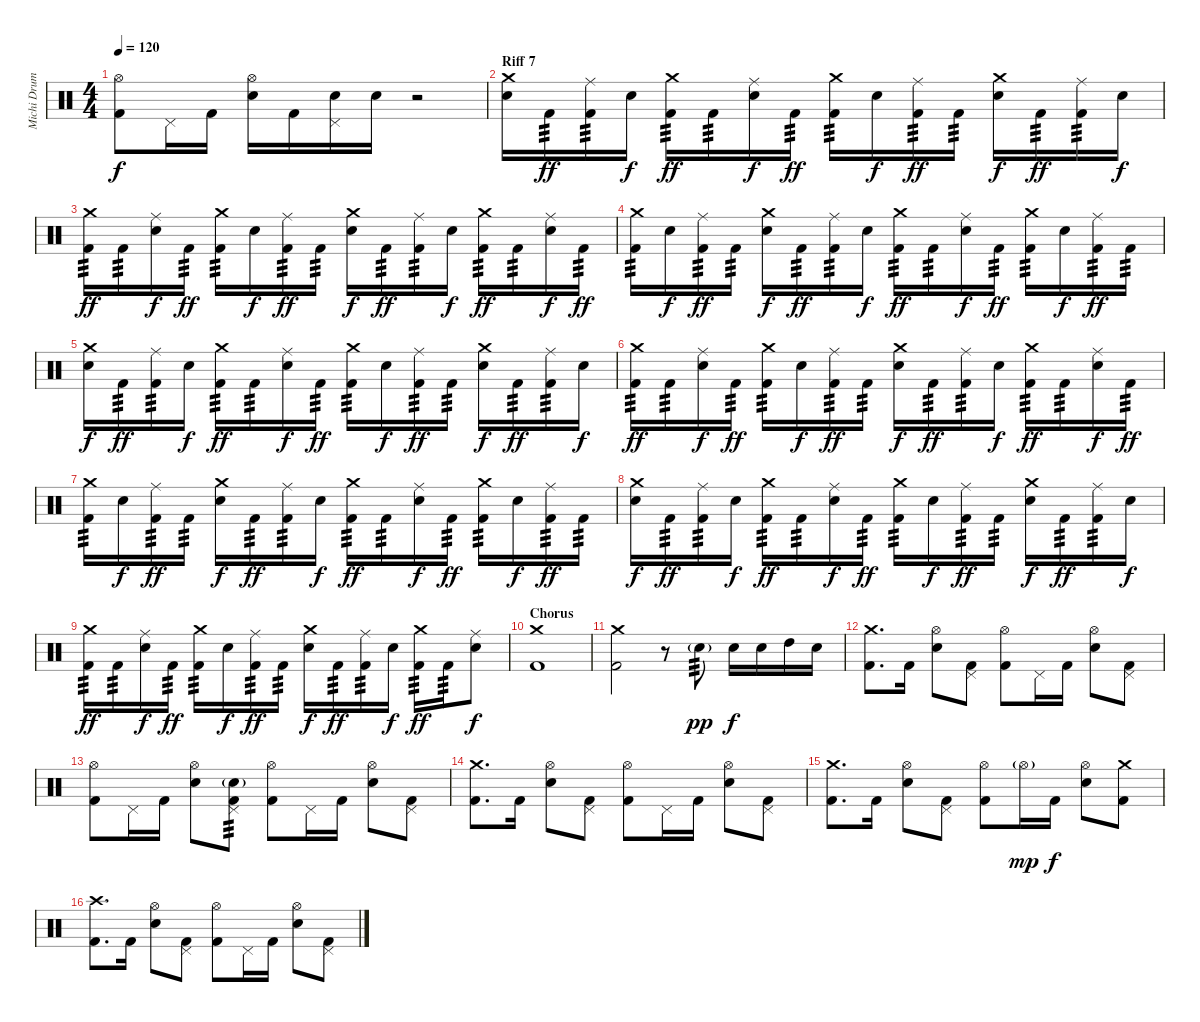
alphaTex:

\track ("Michi Drums" "Michi Drum") {instrument percussion}
\staff {score}
\articulation defaults
\ts (4 4)
\tempo 120
\clef neutral
\ks c
("Hi-Hat (open)" "Kick (hit) 2").8{dy f} "Pedal Hi-Hat (hit)".16 "Kick (hit) 2".16 ("Hi-Hat (open)" "Electric Snare (hit)").16 "Kick (hit) 2".16 ("Pedal Hi-Hat (hit)" "Electric Snare (hit)").16 "Electric Snare (hit)".16 r.2 |
\section ("" "Riff 7")
("Crash medium (hit)" "Electric Snare (hit)").16 "Kick (hit) 2".16{tp 3 dy ff} ("Ride (middle)" "Kick (hit) 2").16{tp 3} "Electric Snare (hit)".16{dy f} ("Crash medium (hit)" "Kick (hit) 2").16{tp 3 dy ff} "Kick (hit) 2".16{tp 3} ("Ride (middle)" "Electric Snare (hit)").16{dy f} "Kick (hit) 2".16{tp 3 dy ff} ("Crash medium (hit)" "Kick (hit) 2").16{tp 3} "Electric Snare (hit)".16{dy f} ("Ride (middle)" "Kick (hit) 2").16{tp 3 dy ff} "Kick (hit) 2".16{tp 3} ("Crash medium (hit)" "Electric Snare (hit)").16{dy f} "Kick (hit) 2".16{tp 3 dy ff} ("Ride (middle)" "Kick (hit) 2").16{tp 3} "Electric Snare (hit)".16{dy f} |
("Crash medium (hit)" "Kick (hit) 2").16{tp 3 dy ff} "Kick (hit) 2".16{tp 3} ("Ride (middle)" "Electric Snare (hit)").16{dy f} "Kick (hit) 2".16{tp 3 dy ff} ("Crash medium (hit)" "Kick (hit) 2").16{tp 3} "Electric Snare (hit)".16{dy f} ("Ride (middle)" "Kick (hit) 2").16{tp 3 dy ff} "Kick (hit) 2".16{tp 3} ("Crash medium (hit)" "Electric Snare (hit)").16{dy f} "Kick (hit) 2".16{tp 3 dy ff} ("Ride (middle)" "Kick (hit) 2").16{tp 3} "Electric Snare (hit)".16{dy f} ("Crash medium (hit)" "Kick (hit) 2").16{tp 3 dy ff} "Kick (hit) 2".16{tp 3} ("Ride (middle)" "Electric Snare (hit)").16{dy f} "Kick (hit) 2".16{tp 3 dy ff} |
("Crash medium (hit)" "Kick (hit) 2").16{tp 3} "Electric Snare (hit)".16{dy f} ("Ride (middle)" "Kick (hit) 2").16{tp 3 dy ff} "Kick (hit) 2".16{tp 3} ("Crash medium (hit)" "Electric Snare (hit)").16{dy f} "Kick (hit) 2".16{tp 3 dy ff} ("Ride (middle)" "Kick (hit) 2").16{tp 3} "Electric Snare (hit)".16{dy f} ("Crash medium (hit)" "Kick (hit) 2").16{tp 3 dy ff} "Kick (hit) 2".16{tp 3} ("Ride (middle)" "Electric Snare (hit)").16{dy f} "Kick (hit) 2".16{tp 3 dy ff} ("Crash medium (hit)" "Kick (hit) 2").16{tp 3} "Electric Snare (hit)".16{dy f} ("Ride (middle)" "Kick (hit) 2").16{tp 3 dy ff} "Kick (hit) 2".16{tp 3} |
("Crash medium (hit)" "Electric Snare (hit)").16{dy f} "Kick (hit) 2".16{tp 3 dy ff} ("Ride (middle)" "Kick (hit) 2").16{tp 3} "Electric Snare (hit)".16{dy f} ("Crash medium (hit)" "Kick (hit) 2").16{tp 3 dy ff} "Kick (hit) 2".16{tp 3} ("Ride (middle)" "Electric Snare (hit)").16{dy f} "Kick (hit) 2".16{tp 3 dy ff} ("Crash medium (hit)" "Kick (hit) 2").16{tp 3} "Electric Snare (hit)".16{dy f} ("Ride (middle)" "Kick (hit) 2").16{tp 3 dy ff} "Kick (hit) 2".16{tp 3} ("Crash medium (hit)" "Electric Snare (hit)").16{dy f} "Kick (hit) 2".16{tp 3 dy ff} ("Ride (middle)" "Kick (hit) 2").16{tp 3} "Electric Snare (hit)".16{dy f} |
("Crash medium (hit)" "Kick (hit) 2").16{tp 3 dy ff} "Kick (hit) 2".16{tp 3} ("Ride (middle)" "Electric Snare (hit)").16{dy f} "Kick (hit) 2".16{tp 3 dy ff} ("Crash medium (hit)" "Kick (hit) 2").16{tp 3} "Electric Snare (hit)".16{dy f} ("Ride (middle)" "Kick (hit) 2").16{tp 3 dy ff} "Kick (hit) 2".16{tp 3} ("Crash medium (hit)" "Electric Snare (hit)").16{dy f} "Kick (hit) 2".16{tp 3 dy ff} ("Ride (middle)" "Kick (hit) 2").16{tp 3} "Electric Snare (hit)".16{dy f} ("Crash medium (hit)" "Kick (hit) 2").16{tp 3 dy ff} "Kick (hit) 2".16{tp 3} ("Ride (middle)" "Electric Snare (hit)").16{dy f} "Kick (hit) 2".16{tp 3 dy ff} |
("Crash medium (hit)" "Kick (hit) 2").16{tp 3} "Electric Snare (hit)".16{dy f} ("Ride (middle)" "Kick (hit) 2").16{tp 3 dy ff} "Kick (hit) 2".16{tp 3} ("Crash medium (hit)" "Electric Snare (hit)").16{dy f} "Kick (hit) 2".16{tp 3 dy ff} ("Ride (middle)" "Kick (hit) 2").16{tp 3} "Electric Snare (hit)".16{dy f} ("Crash medium (hit)" "Kick (hit) 2").16{tp 3 dy ff} "Kick (hit) 2".16{tp 3} ("Ride (middle)" "Electric Snare (hit)").16{dy f} "Kick (hit) 2".16{tp 3 dy ff} ("Crash medium (hit)" "Kick (hit) 2").16{tp 3} "Electric Snare (hit)".16{dy f} ("Ride (middle)" "Kick (hit) 2").16{tp 3 dy ff} "Kick (hit) 2".16{tp 3} |
("Crash medium (hit)" "Electric Snare (hit)").16{dy f} "Kick (hit) 2".16{tp 3 dy ff} ("Ride (middle)" "Kick (hit) 2").16{tp 3} "Electric Snare (hit)".16{dy f} ("Crash medium (hit)" "Kick (hit) 2").16{tp 3 dy ff} "Kick (hit) 2".16{tp 3} ("Ride (middle)" "Electric Snare (hit)").16{dy f} "Kick (hit) 2".16{tp 3 dy ff} ("Crash medium (hit)" "Kick (hit) 2").16{tp 3} "Electric Snare (hit)".16{dy f} ("Ride (middle)" "Kick (hit) 2").16{tp 3 dy ff} "Kick (hit) 2".16{tp 3} ("Crash medium (hit)" "Electric Snare (hit)").16{dy f} "Kick (hit) 2".16{tp 3 dy ff} ("Ride (middle)" "Kick (hit) 2").16{tp 3} "Electric Snare (hit)".16{dy f} |
("Crash medium (hit)" "Kick (hit) 2").16{tp 3 dy ff} "Kick (hit) 2".16{tp 3} ("Ride (middle)" "Electric Snare (hit)").16{dy f} "Kick (hit) 2".16{tp 3 dy ff} ("Crash medium (hit)" "Kick (hit) 2").16{tp 3} "Electric Snare (hit)".16{dy f} ("Ride (middle)" "Kick (hit) 2").16{tp 3 dy ff} "Kick (hit) 2".16{tp 3} ("Crash medium (hit)" "Electric Snare (hit)").16{dy f} "Kick (hit) 2".16{tp 3 dy ff} ("Ride (middle)" "Kick (hit) 2").16{tp 3} "Electric Snare (hit)".16{dy f} ("Crash medium (hit)" "Kick (hit) 2").16{tp 3 dy ff} "Kick (hit) 2".16{tp 3} ("Ride (middle)" "Electric Snare (hit)").8{dy f} |
\section ("" "Chorus")
("Crash medium (hit)" "Kick (hit) 2").1 |
("Crash medium (hit)" "Kick (hit) 2").2 r.8 "Electric Snare (hit)"{g}.8{tp 3 dy pp} "Electric Snare (hit)".16{dy f} "Electric Snare (hit)".16 "High Tom (hit)".16 "Electric Snare (hit)".16 |
("Crash medium (hit)" "Kick (hit) 2").8{d} "Kick (hit) 2".16 ("Hi-Hat (open)" "Electric Snare (hit)").8 ("Pedal Hi-Hat (hit)" "Kick (hit) 2").8 ("Hi-Hat (open)" "Kick (hit) 2").8 "Pedal Hi-Hat (hit)".16 "Kick (hit) 2".16 ("Hi-Hat (open)" "Electric Snare (hit)").8 ("Pedal Hi-Hat (hit)" "Kick (hit) 2").8 |
("Hi-Hat (open)" "Kick (hit) 2").8 "Pedal Hi-Hat (hit)".16 "Kick (hit) 2".16 ("Hi-Hat (open)" "Electric Snare (hit)").8 ("Pedal Hi-Hat (hit)" "Electric Snare (hit)"{g} "Kick (hit) 2").8{tp 3} ("Hi-Hat (open)" "Kick (hit) 2").8 "Pedal Hi-Hat (hit)".16 "Kick (hit) 2".16 ("Hi-Hat (open)" "Electric Snare (hit)").8 ("Pedal Hi-Hat (hit)" "Kick (hit) 2").8 |
("Crash medium (hit)" "Kick (hit) 2").8{d} "Kick (hit) 2".16 ("Hi-Hat (open)" "Electric Snare (hit)").8 ("Pedal Hi-Hat (hit)" "Kick (hit) 2").8 ("Hi-Hat (open)" "Kick (hit) 2").8 "Pedal Hi-Hat (hit)".16 "Kick (hit) 2".16 ("Hi-Hat (open)" "Electric Snare (hit)").8 ("Pedal Hi-Hat (hit)" "Kick (hit) 2").8 |
("Crash medium (hit)" "Kick (hit) 2").8{d} "Kick (hit) 2".16 ("Hi-Hat (open)" "Electric Snare (hit)").8 ("Pedal Hi-Hat (hit)" "Kick (hit) 2").8 ("Hi-Hat (open)" "Kick (hit) 2").8 "Hi-Hat (open)"{g}.16{dy mp} "Kick (hit) 2".16{dy f} ("Hi-Hat (open)" "Electric Snare (hit)").8 ("Crash medium (hit)" "Kick (hit) 2").8 |
("Crash high (hit)" "Kick (hit) 2").8{d} "Kick (hit) 2".16 ("Hi-Hat (open)" "Electric Snare (hit)").8 ("Pedal Hi-Hat (hit)" "Kick (hit) 2").8 ("Hi-Hat (open)" "Kick (hit) 2").8 "Pedal Hi-Hat (hit)".16 "Kick (hit) 2".16 ("Hi-Hat (open)" "Electric Snare (hit)").8 ("Pedal Hi-Hat (hit)" "Kick (hit) 2").8
